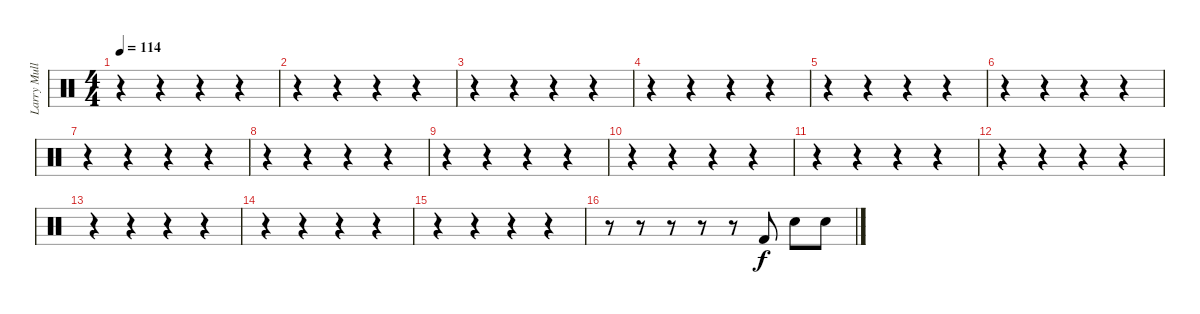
\track ("Larry Mullen Jr suplement for midi" "Larry Mull") {instrument percussion}
\staff {score}
\articulation defaults
\ts (4 4)
\tempo 114
\clef neutral
\ks c
r.4{dy f} r.4 r.4 r.4 |
r.4 r.4 r.4 r.4 |
r.4 r.4 r.4 r.4 |
r.4 r.4 r.4 r.4 |
r.4 r.4 r.4 r.4 |
r.4 r.4 r.4 r.4 |
r.4 r.4 r.4 r.4 |
r.4 r.4 r.4 r.4 |
r.4 r.4 r.4 r.4 |
r.4 r.4 r.4 r.4 |
r.4 r.4 r.4 r.4 |
r.4 r.4 r.4 r.4 |
r.4 r.4 r.4 r.4 |
r.4 r.4 r.4 r.4 |
r.4 r.4 r.4 r.4 |
r.8 r.8 r.8 r.8 r.8 "Kick (hit) 2".8 "Electric Snare (hit)".8 "Electric Snare (hit)".8
